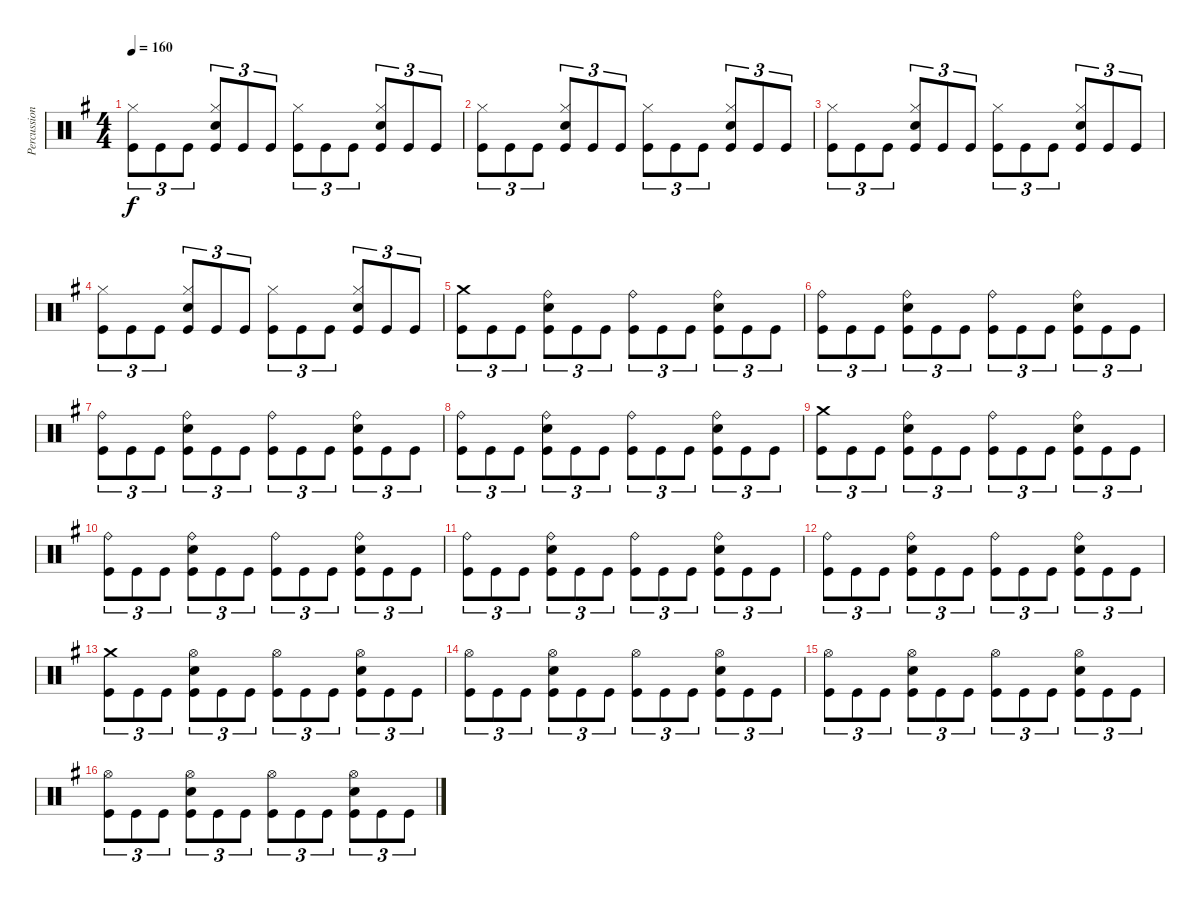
\track ("Percussions" "Percussion") {instrument percussion}
\staff {score}
\articulation defaults
\ts (4 4)
\tempo 160
\clef neutral
\ks g
("Kick (hit)" "Hi-Hat (closed)").8{tu (3 2) dy f} "Kick (hit)".8{tu (3 2)} "Kick (hit)".8{tu (3 2)} ("Kick (hit)" "Electric Snare (hit)" "Hi-Hat (closed)").8{tu (3 2)} "Kick (hit)".8{tu (3 2)} "Kick (hit)".8{tu (3 2)} ("Kick (hit)" "Hi-Hat (closed)").8{tu (3 2)} "Kick (hit)".8{tu (3 2)} "Kick (hit)".8{tu (3 2)} ("Kick (hit)" "Electric Snare (hit)" "Hi-Hat (closed)").8{tu (3 2)} "Kick (hit)".8{tu (3 2)} "Kick (hit)".8{tu (3 2)} |
("Kick (hit)" "Hi-Hat (closed)").8{tu (3 2)} "Kick (hit)".8{tu (3 2)} "Kick (hit)".8{tu (3 2)} ("Kick (hit)" "Electric Snare (hit)" "Hi-Hat (closed)").8{tu (3 2)} "Kick (hit)".8{tu (3 2)} "Kick (hit)".8{tu (3 2)} ("Kick (hit)" "Hi-Hat (closed)").8{tu (3 2)} "Kick (hit)".8{tu (3 2)} "Kick (hit)".8{tu (3 2)} ("Kick (hit)" "Electric Snare (hit)" "Hi-Hat (closed)").8{tu (3 2)} "Kick (hit)".8{tu (3 2)} "Kick (hit)".8{tu (3 2)} |
("Kick (hit)" "Hi-Hat (closed)").8{tu (3 2)} "Kick (hit)".8{tu (3 2)} "Kick (hit)".8{tu (3 2)} ("Kick (hit)" "Electric Snare (hit)" "Hi-Hat (closed)").8{tu (3 2)} "Kick (hit)".8{tu (3 2)} "Kick (hit)".8{tu (3 2)} ("Kick (hit)" "Hi-Hat (closed)").8{tu (3 2)} "Kick (hit)".8{tu (3 2)} "Kick (hit)".8{tu (3 2)} ("Kick (hit)" "Electric Snare (hit)" "Hi-Hat (closed)").8{tu (3 2)} "Kick (hit)".8{tu (3 2)} "Kick (hit)".8{tu (3 2)} |
("Kick (hit)" "Hi-Hat (closed)").8{tu (3 2)} "Kick (hit)".8{tu (3 2)} "Kick (hit)".8{tu (3 2)} ("Kick (hit)" "Electric Snare (hit)" "Hi-Hat (closed)").8{tu (3 2)} "Kick (hit)".8{tu (3 2)} "Kick (hit)".8{tu (3 2)} ("Kick (hit)" "Hi-Hat (closed)").8{tu (3 2)} "Kick (hit)".8{tu (3 2)} "Kick (hit)".8{tu (3 2)} ("Kick (hit)" "Electric Snare (hit)" "Hi-Hat (closed)").8{tu (3 2)} "Kick (hit)".8{tu (3 2)} "Kick (hit)".8{tu (3 2)} |
("Kick (hit)" "Crash medium (hit)").8{tu (3 2)} "Kick (hit)".8{tu (3 2)} "Kick (hit)".8{tu (3 2)} ("Kick (hit)" "Electric Snare (hit)" "Ride (bell)").8{tu (3 2)} "Kick (hit)".8{tu (3 2)} "Kick (hit)".8{tu (3 2)} ("Kick (hit)" "Ride (bell)").8{tu (3 2)} "Kick (hit)".8{tu (3 2)} "Kick (hit)".8{tu (3 2)} ("Kick (hit)" "Electric Snare (hit)" "Ride (bell)").8{tu (3 2)} "Kick (hit)".8{tu (3 2)} "Kick (hit)".8{tu (3 2)} |
("Kick (hit)" "Ride (bell)").8{tu (3 2)} "Kick (hit)".8{tu (3 2)} "Kick (hit)".8{tu (3 2)} ("Kick (hit)" "Electric Snare (hit)" "Ride (bell)").8{tu (3 2)} "Kick (hit)".8{tu (3 2)} "Kick (hit)".8{tu (3 2)} ("Kick (hit)" "Ride (bell)").8{tu (3 2)} "Kick (hit)".8{tu (3 2)} "Kick (hit)".8{tu (3 2)} ("Kick (hit)" "Electric Snare (hit)" "Ride (bell)").8{tu (3 2)} "Kick (hit)".8{tu (3 2)} "Kick (hit)".8{tu (3 2)} |
("Kick (hit)" "Ride (bell)").8{tu (3 2)} "Kick (hit)".8{tu (3 2)} "Kick (hit)".8{tu (3 2)} ("Kick (hit)" "Electric Snare (hit)" "Ride (bell)").8{tu (3 2)} "Kick (hit)".8{tu (3 2)} "Kick (hit)".8{tu (3 2)} ("Kick (hit)" "Ride (bell)").8{tu (3 2)} "Kick (hit)".8{tu (3 2)} "Kick (hit)".8{tu (3 2)} ("Kick (hit)" "Electric Snare (hit)" "Ride (bell)").8{tu (3 2)} "Kick (hit)".8{tu (3 2)} "Kick (hit)".8{tu (3 2)} |
("Kick (hit)" "Ride (bell)").8{tu (3 2)} "Kick (hit)".8{tu (3 2)} "Kick (hit)".8{tu (3 2)} ("Kick (hit)" "Electric Snare (hit)" "Ride (bell)").8{tu (3 2)} "Kick (hit)".8{tu (3 2)} "Kick (hit)".8{tu (3 2)} ("Kick (hit)" "Ride (bell)").8{tu (3 2)} "Kick (hit)".8{tu (3 2)} "Kick (hit)".8{tu (3 2)} ("Kick (hit)" "Electric Snare (hit)" "Ride (bell)").8{tu (3 2)} "Kick (hit)".8{tu (3 2)} "Kick (hit)".8{tu (3 2)} |
("Kick (hit)" "Crash medium (hit)").8{tu (3 2)} "Kick (hit)".8{tu (3 2)} "Kick (hit)".8{tu (3 2)} ("Kick (hit)" "Electric Snare (hit)" "Ride (bell)").8{tu (3 2)} "Kick (hit)".8{tu (3 2)} "Kick (hit)".8{tu (3 2)} ("Kick (hit)" "Ride (bell)").8{tu (3 2)} "Kick (hit)".8{tu (3 2)} "Kick (hit)".8{tu (3 2)} ("Kick (hit)" "Electric Snare (hit)" "Ride (bell)").8{tu (3 2)} "Kick (hit)".8{tu (3 2)} "Kick (hit)".8{tu (3 2)} |
("Kick (hit)" "Ride (bell)").8{tu (3 2)} "Kick (hit)".8{tu (3 2)} "Kick (hit)".8{tu (3 2)} ("Kick (hit)" "Electric Snare (hit)" "Ride (bell)").8{tu (3 2)} "Kick (hit)".8{tu (3 2)} "Kick (hit)".8{tu (3 2)} ("Kick (hit)" "Ride (bell)").8{tu (3 2)} "Kick (hit)".8{tu (3 2)} "Kick (hit)".8{tu (3 2)} ("Kick (hit)" "Electric Snare (hit)" "Ride (bell)").8{tu (3 2)} "Kick (hit)".8{tu (3 2)} "Kick (hit)".8{tu (3 2)} |
("Kick (hit)" "Ride (bell)").8{tu (3 2)} "Kick (hit)".8{tu (3 2)} "Kick (hit)".8{tu (3 2)} ("Kick (hit)" "Electric Snare (hit)" "Ride (bell)").8{tu (3 2)} "Kick (hit)".8{tu (3 2)} "Kick (hit)".8{tu (3 2)} ("Kick (hit)" "Ride (bell)").8{tu (3 2)} "Kick (hit)".8{tu (3 2)} "Kick (hit)".8{tu (3 2)} ("Kick (hit)" "Electric Snare (hit)" "Ride (bell)").8{tu (3 2)} "Kick (hit)".8{tu (3 2)} "Kick (hit)".8{tu (3 2)} |
("Kick (hit)" "Ride (bell)").8{tu (3 2)} "Kick (hit)".8{tu (3 2)} "Kick (hit)".8{tu (3 2)} ("Kick (hit)" "Electric Snare (hit)" "Ride (bell)").8{tu (3 2)} "Kick (hit)".8{tu (3 2)} "Kick (hit)".8{tu (3 2)} ("Kick (hit)" "Ride (bell)").8{tu (3 2)} "Kick (hit)".8{tu (3 2)} "Kick (hit)".8{tu (3 2)} ("Kick (hit)" "Electric Snare (hit)" "Ride (bell)").8{tu (3 2)} "Kick (hit)".8{tu (3 2)} "Kick (hit)".8{tu (3 2)} |
("Kick (hit)" "Crash medium (hit)").8{tu (3 2)} "Kick (hit)".8{tu (3 2)} "Kick (hit)".8{tu (3 2)} ("Kick (hit)" "Electric Snare (hit)" "Hi-Hat (open)").8{tu (3 2)} "Kick (hit)".8{tu (3 2)} "Kick (hit)".8{tu (3 2)} ("Kick (hit)" "Hi-Hat (open)").8{tu (3 2)} "Kick (hit)".8{tu (3 2)} "Kick (hit)".8{tu (3 2)} ("Kick (hit)" "Electric Snare (hit)" "Hi-Hat (open)").8{tu (3 2)} "Kick (hit)".8{tu (3 2)} "Kick (hit)".8{tu (3 2)} |
("Kick (hit)" "Hi-Hat (open)").8{tu (3 2)} "Kick (hit)".8{tu (3 2)} "Kick (hit)".8{tu (3 2)} ("Kick (hit)" "Electric Snare (hit)" "Hi-Hat (open)").8{tu (3 2)} "Kick (hit)".8{tu (3 2)} "Kick (hit)".8{tu (3 2)} ("Kick (hit)" "Hi-Hat (open)").8{tu (3 2)} "Kick (hit)".8{tu (3 2)} "Kick (hit)".8{tu (3 2)} ("Kick (hit)" "Electric Snare (hit)" "Hi-Hat (open)").8{tu (3 2)} "Kick (hit)".8{tu (3 2)} "Kick (hit)".8{tu (3 2)} |
("Kick (hit)" "Hi-Hat (open)").8{tu (3 2)} "Kick (hit)".8{tu (3 2)} "Kick (hit)".8{tu (3 2)} ("Kick (hit)" "Electric Snare (hit)" "Hi-Hat (open)").8{tu (3 2)} "Kick (hit)".8{tu (3 2)} "Kick (hit)".8{tu (3 2)} ("Kick (hit)" "Hi-Hat (open)").8{tu (3 2)} "Kick (hit)".8{tu (3 2)} "Kick (hit)".8{tu (3 2)} ("Kick (hit)" "Electric Snare (hit)" "Hi-Hat (open)").8{tu (3 2)} "Kick (hit)".8{tu (3 2)} "Kick (hit)".8{tu (3 2)} |
("Kick (hit)" "Hi-Hat (open)").8{tu (3 2)} "Kick (hit)".8{tu (3 2)} "Kick (hit)".8{tu (3 2)} ("Kick (hit)" "Electric Snare (hit)" "Hi-Hat (open)").8{tu (3 2)} "Kick (hit)".8{tu (3 2)} "Kick (hit)".8{tu (3 2)} ("Kick (hit)" "Hi-Hat (open)").8{tu (3 2)} "Kick (hit)".8{tu (3 2)} "Kick (hit)".8{tu (3 2)} ("Kick (hit)" "Electric Snare (hit)" "Hi-Hat (open)").8{tu (3 2)} "Kick (hit)".8{tu (3 2)} "Kick (hit)".8{tu (3 2)}
